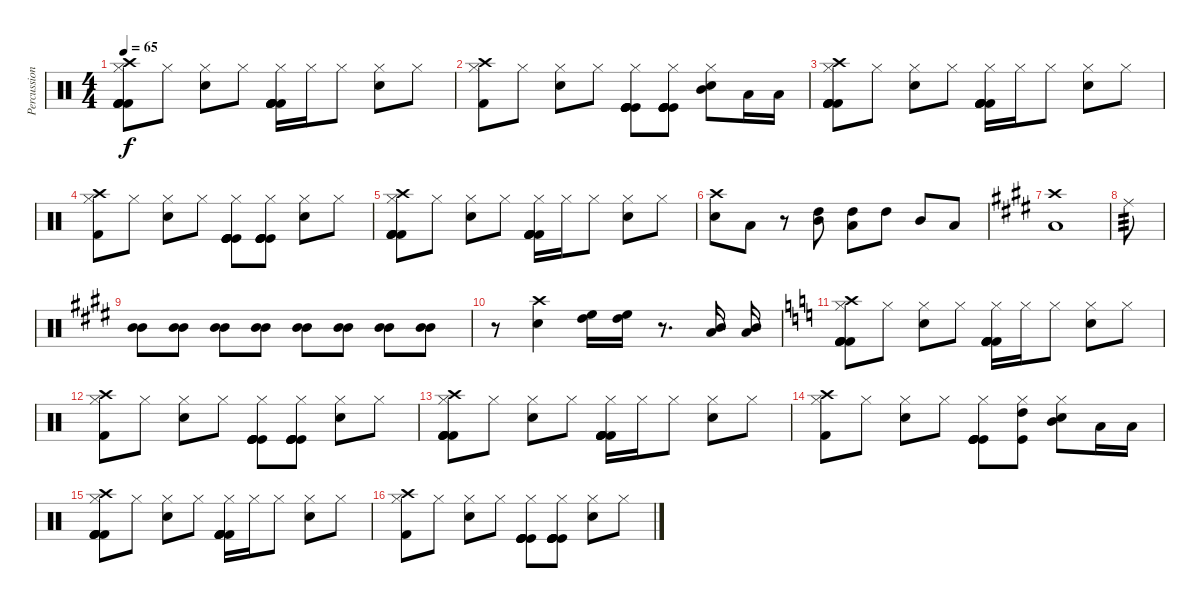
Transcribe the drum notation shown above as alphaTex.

\track ("Percussion" "Percussion") {instrument percussion}
\staff {score}
\articulation defaults
\ts (4 4)
\tempo 65
\clef neutral
\ks c
("Kick (hit) 2" "Hi-Hat (closed)" "Crash high (hit)" "Kick (hit) 2" "Kick (hit) 2" "Kick (hit) 2").8{dy f} "Hi-Hat (closed)".8 ("Hi-Hat (closed)" "Snare (hit) 2").8 "Hi-Hat (closed)".8 ("Hi-Hat (closed)" "Kick (hit) 2" "Kick (hit) 2" "Kick (hit) 2" "Kick (hit) 2" "Kick (hit) 2").16 "Hi-Hat (closed)".16 "Hi-Hat (closed)".8 ("Hi-Hat (closed)" "Snare (hit) 2").8 "Hi-Hat (closed)".8 |
("Hi-Hat (closed)" "Kick (hit) 2" "Crash high (hit)").8 "Hi-Hat (closed)".8 ("Hi-Hat (closed)" "Snare (hit) 2").8 "Hi-Hat (closed)".8 ("Hi-Hat (closed)" "Kick (hit)" "Kick (hit)" "Kick (hit)" "Kick (hit)" "Kick (hit)").8 ("Hi-Hat (closed)" "Kick (hit)" "Kick (hit)" "Kick (hit)" "Kick (hit)" "Kick (hit)").8 ("Hi-Hat (closed)" "Snare (hit) 2" "Mid Tom (hit)").8 "Low Tom (hit)".16 "Low Tom (hit)".16 |
("Kick (hit) 2" "Hi-Hat (closed)" "Crash high (hit)" "Kick (hit) 2" "Kick (hit) 2" "Kick (hit) 2").8 "Hi-Hat (closed)".8 ("Hi-Hat (closed)" "Snare (hit) 2").8 "Hi-Hat (closed)".8 ("Hi-Hat (closed)" "Kick (hit) 2" "Kick (hit) 2" "Kick (hit) 2" "Kick (hit) 2" "Kick (hit) 2").16 "Hi-Hat (closed)".16 "Hi-Hat (closed)".8 ("Hi-Hat (closed)" "Snare (hit) 2").8 "Hi-Hat (closed)".8 |
("Hi-Hat (closed)" "Kick (hit) 2" "Crash high (hit)").8 "Hi-Hat (closed)".8 ("Hi-Hat (closed)" "Snare (hit) 2").8 "Hi-Hat (closed)".8 ("Hi-Hat (closed)" "Kick (hit)" "Kick (hit)" "Kick (hit)" "Kick (hit)" "Kick (hit)").8 ("Hi-Hat (closed)" "Kick (hit)" "Kick (hit)" "Kick (hit)" "Kick (hit)" "Kick (hit)").8 ("Hi-Hat (closed)" "Snare (hit) 2").8 "Hi-Hat (closed)".8 |
("Kick (hit) 2" "Hi-Hat (closed)" "Crash high (hit)" "Kick (hit) 2" "Kick (hit) 2" "Kick (hit) 2").8 "Hi-Hat (closed)".8 ("Hi-Hat (closed)" "Snare (hit) 2").8 "Hi-Hat (closed)".8 ("Hi-Hat (closed)" "Kick (hit) 2" "Kick (hit) 2" "Kick (hit) 2" "Kick (hit) 2" "Kick (hit) 2").16 "Hi-Hat (closed)".16 "Hi-Hat (closed)".8 ("Hi-Hat (closed)" "Snare (hit) 2").8 "Hi-Hat (closed)".8 |
("Crash high (hit)" "Snare (hit) 2").8 "Low Tom (hit)".8 r.8 ("High Tom (hit)" "Mid Tom (hit)").8 ("High Tom (hit)" "Low Tom (hit)").8 "High Tom (hit)".8 "Mid Tom (hit)".8 "Low Tom (hit)".8 |
\ks e
("Low Tom (hit)" "Crash high (hit)").1 |
"Ride (middle)".8{tp 3} |
("Mid Tom (hit)" "Mid Tom (hit)").8 ("Mid Tom (hit)" "Mid Tom (hit)").8 ("Mid Tom (hit)" "Mid Tom (hit)").8 ("Mid Tom (hit)" "Mid Tom (hit)").8 ("Mid Tom (hit)" "Mid Tom (hit)").8 ("Mid Tom (hit)" "Mid Tom (hit)").8 ("Mid Tom (hit)" "Mid Tom (hit)").8 ("Mid Tom (hit)" "Mid Tom (hit)").8 |
r.8 ("Snare (hit) 2" "Crash high (hit)").4 ("High Tom (hit)" "High Floor Tom (hit)").16 ("High Tom (hit)" "High Floor Tom (hit)").16 r.8{d} ("Mid Tom (hit)" "Low Tom (hit)").16 ("Mid Tom (hit)" "Low Tom (hit)").16 |
\ks c
("Kick (hit) 2" "Hi-Hat (closed)" "Crash high (hit)" "Kick (hit) 2" "Kick (hit) 2" "Kick (hit) 2").8 "Hi-Hat (closed)".8 ("Hi-Hat (closed)" "Snare (hit) 2").8 "Hi-Hat (closed)".8 ("Hi-Hat (closed)" "Kick (hit) 2" "Kick (hit) 2" "Kick (hit) 2" "Kick (hit) 2" "Kick (hit) 2").16 "Hi-Hat (closed)".16 "Hi-Hat (closed)".8 ("Hi-Hat (closed)" "Snare (hit) 2").8 "Hi-Hat (closed)".8 |
("Hi-Hat (closed)" "Kick (hit) 2" "Crash high (hit)").8 "Hi-Hat (closed)".8 ("Hi-Hat (closed)" "Snare (hit) 2").8 "Hi-Hat (closed)".8 ("Hi-Hat (closed)" "Kick (hit)" "Kick (hit)" "Kick (hit)" "Kick (hit)" "Kick (hit)").8 ("Hi-Hat (closed)" "Kick (hit)" "Kick (hit)" "Kick (hit)" "Kick (hit)" "Kick (hit)").8 ("Hi-Hat (closed)" "Snare (hit) 2").8 "Hi-Hat (closed)".8 |
("Kick (hit) 2" "Hi-Hat (closed)" "Crash high (hit)" "Kick (hit) 2" "Kick (hit) 2" "Kick (hit) 2").8 "Hi-Hat (closed)".8 ("Hi-Hat (closed)" "Snare (hit) 2").8 "Hi-Hat (closed)".8 ("Hi-Hat (closed)" "Kick (hit) 2" "Kick (hit) 2" "Kick (hit) 2" "Kick (hit) 2" "Kick (hit) 2").16 "Hi-Hat (closed)".16 "Hi-Hat (closed)".8 ("Hi-Hat (closed)" "Snare (hit) 2").8 "Hi-Hat (closed)".8 |
("Hi-Hat (closed)" "Kick (hit) 2" "Crash high (hit)").8 "Hi-Hat (closed)".8 ("Hi-Hat (closed)" "Snare (hit) 2").8 "Hi-Hat (closed)".8 ("Hi-Hat (closed)" "Kick (hit)" "Kick (hit)" "Kick (hit)" "Kick (hit)" "Kick (hit)").8 ("Hi-Hat (closed)" "High Tom (hit)" "Kick (hit)").8 ("Hi-Hat (closed)" "Snare (hit) 2" "Mid Tom (hit)").8 "Low Tom (hit)".16 "Low Tom (hit)".16 |
("Kick (hit) 2" "Hi-Hat (closed)" "Crash high (hit)" "Kick (hit) 2" "Kick (hit) 2" "Kick (hit) 2").8 "Hi-Hat (closed)".8 ("Hi-Hat (closed)" "Snare (hit) 2").8 "Hi-Hat (closed)".8 ("Hi-Hat (closed)" "Kick (hit) 2" "Kick (hit) 2" "Kick (hit) 2" "Kick (hit) 2" "Kick (hit) 2").16 "Hi-Hat (closed)".16 "Hi-Hat (closed)".8 ("Hi-Hat (closed)" "Snare (hit) 2").8 "Hi-Hat (closed)".8 |
("Hi-Hat (closed)" "Kick (hit) 2" "Crash high (hit)").8 "Hi-Hat (closed)".8 ("Hi-Hat (closed)" "Snare (hit) 2").8 "Hi-Hat (closed)".8 ("Hi-Hat (closed)" "Kick (hit)" "Kick (hit)" "Kick (hit)" "Kick (hit)" "Kick (hit)").8 ("Hi-Hat (closed)" "Kick (hit)" "Kick (hit)" "Kick (hit)" "Kick (hit)" "Kick (hit)").8 ("Hi-Hat (closed)" "Snare (hit) 2").8 "Hi-Hat (closed)".8
